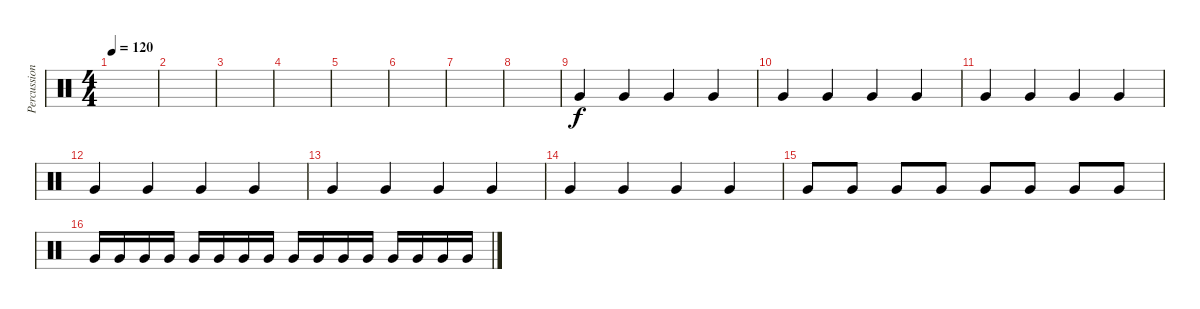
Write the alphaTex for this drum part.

\track ("Percussion" "Percussion") {instrument percussion}
\staff {score}
\articulation defaults
\ts (4 4)
\tempo 120
\clef neutral
\ks c
|
|
|
|
|
|
|
|
"Very Low Tom (hit)".4 "Very Low Tom (hit)".4 "Very Low Tom (hit)".4 "Very Low Tom (hit)".4 |
"Very Low Tom (hit)".4 "Very Low Tom (hit)".4 "Very Low Tom (hit)".4 "Very Low Tom (hit)".4 |
"Very Low Tom (hit)".4 "Very Low Tom (hit)".4 "Very Low Tom (hit)".4 "Very Low Tom (hit)".4 |
"Very Low Tom (hit)".4 "Very Low Tom (hit)".4 "Very Low Tom (hit)".4 "Very Low Tom (hit)".4 |
"Very Low Tom (hit)".4 "Very Low Tom (hit)".4 "Very Low Tom (hit)".4 "Very Low Tom (hit)".4 |
"Very Low Tom (hit)".4 "Very Low Tom (hit)".4 "Very Low Tom (hit)".4 "Very Low Tom (hit)".4 |
"Very Low Tom (hit)".8 "Very Low Tom (hit)".8 "Very Low Tom (hit)".8 "Very Low Tom (hit)".8 "Very Low Tom (hit)".8 "Very Low Tom (hit)".8 "Very Low Tom (hit)".8 "Very Low Tom (hit)".8 |
"Very Low Tom (hit)".16 "Very Low Tom (hit)".16 "Very Low Tom (hit)".16 "Very Low Tom (hit)".16 "Very Low Tom (hit)".16 "Very Low Tom (hit)".16 "Very Low Tom (hit)".16 "Very Low Tom (hit)".16 "Very Low Tom (hit)".16 "Very Low Tom (hit)".16 "Very Low Tom (hit)".16 "Very Low Tom (hit)".16 "Very Low Tom (hit)".16 "Very Low Tom (hit)".16 "Very Low Tom (hit)".16 "Very Low Tom (hit)".16
